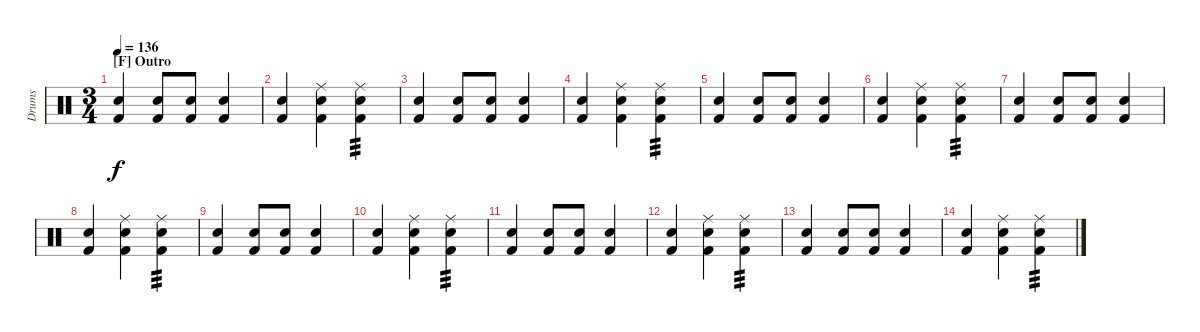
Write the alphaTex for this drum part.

\track ("Drums" "Drums") {instrument percussion}
\staff {score}
\articulation defaults
\ts (3 4)
\section ("" "[F] Outro")
\tempo 136
\clef neutral
\ks aminor
("Snare (hit) 2" "Kick (hit) 2").4{dy f} ("Snare (hit) 2" "Kick (hit) 2").8 ("Snare (hit) 2" "Kick (hit) 2").8 ("Snare (hit) 2" "Kick (hit) 2").4 |
("Snare (hit) 2" "Kick (hit) 2").4 ("Ride (middle)" "Snare (hit) 2" "Kick (hit) 2").4 ("Ride (middle)" "Snare (hit) 2" "Kick (hit) 2").4{tp 3} |
("Snare (hit) 2" "Kick (hit) 2").4 ("Snare (hit) 2" "Kick (hit) 2").8 ("Snare (hit) 2" "Kick (hit) 2").8 ("Snare (hit) 2" "Kick (hit) 2").4 |
("Snare (hit) 2" "Kick (hit) 2").4 ("Ride (middle)" "Snare (hit) 2" "Kick (hit) 2").4 ("Ride (middle)" "Snare (hit) 2" "Kick (hit) 2").4{tp 3} |
("Snare (hit) 2" "Kick (hit) 2").4 ("Snare (hit) 2" "Kick (hit) 2").8 ("Snare (hit) 2" "Kick (hit) 2").8 ("Snare (hit) 2" "Kick (hit) 2").4 |
("Snare (hit) 2" "Kick (hit) 2").4 ("Ride (middle)" "Snare (hit) 2" "Kick (hit) 2").4 ("Ride (middle)" "Snare (hit) 2" "Kick (hit) 2").4{tp 3} |
("Snare (hit) 2" "Kick (hit) 2").4 ("Snare (hit) 2" "Kick (hit) 2").8 ("Snare (hit) 2" "Kick (hit) 2").8 ("Snare (hit) 2" "Kick (hit) 2").4 |
("Snare (hit) 2" "Kick (hit) 2").4 ("Ride (middle)" "Snare (hit) 2" "Kick (hit) 2").4 ("Ride (middle)" "Snare (hit) 2" "Kick (hit) 2").4{tp 3} |
("Snare (hit) 2" "Kick (hit) 2").4 ("Snare (hit) 2" "Kick (hit) 2").8 ("Snare (hit) 2" "Kick (hit) 2").8 ("Snare (hit) 2" "Kick (hit) 2").4 |
("Snare (hit) 2" "Kick (hit) 2").4 ("Ride (middle)" "Snare (hit) 2" "Kick (hit) 2").4 ("Ride (middle)" "Snare (hit) 2" "Kick (hit) 2").4{tp 3} |
("Snare (hit) 2" "Kick (hit) 2").4 ("Snare (hit) 2" "Kick (hit) 2").8 ("Snare (hit) 2" "Kick (hit) 2").8 ("Snare (hit) 2" "Kick (hit) 2").4 |
("Snare (hit) 2" "Kick (hit) 2").4 ("Ride (middle)" "Snare (hit) 2" "Kick (hit) 2").4 ("Ride (middle)" "Snare (hit) 2" "Kick (hit) 2").4{tp 3} |
("Snare (hit) 2" "Kick (hit) 2").4 ("Snare (hit) 2" "Kick (hit) 2").8 ("Snare (hit) 2" "Kick (hit) 2").8 ("Snare (hit) 2" "Kick (hit) 2").4 |
("Snare (hit) 2" "Kick (hit) 2").4 ("Ride (middle)" "Snare (hit) 2" "Kick (hit) 2").4 ("Ride (middle)" "Snare (hit) 2" "Kick (hit) 2").4{tp 3}
